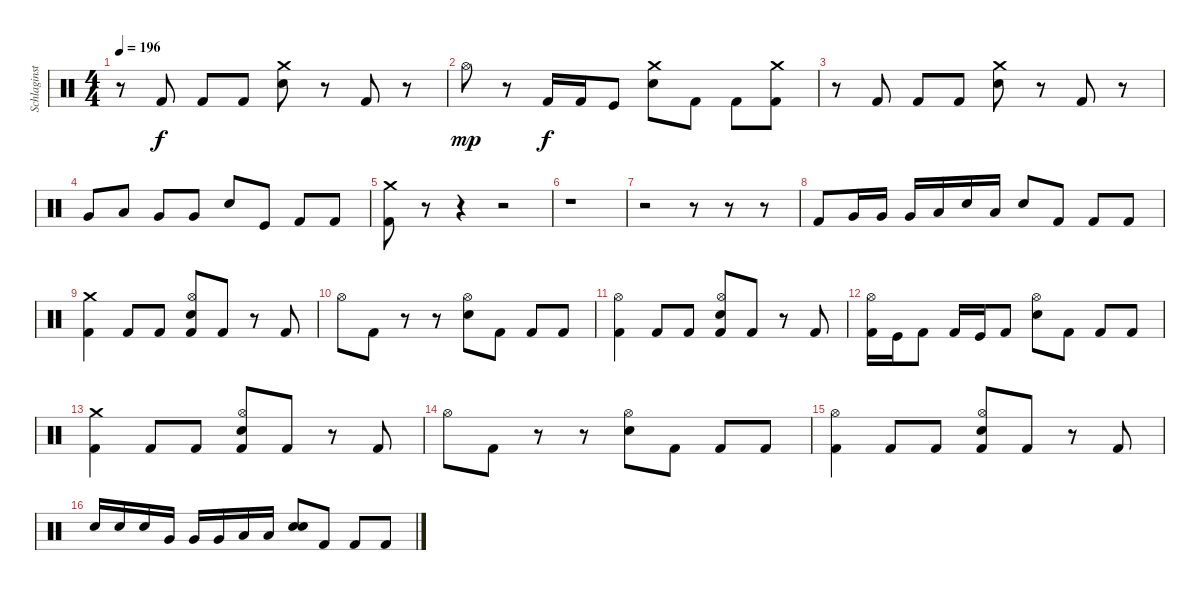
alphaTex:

\track ("Schlaginstrumente - Auswahl" "Schlaginst") {instrument percussion}
\staff
\articulation defaults
\ts (4 4)
\tempo 196
\clef neutral
\ks c
r.8{dy f} "Kick (hit) 2".8 "Kick (hit) 2".8 "Kick (hit) 2".8 ("Crash medium (hit)" "Snare (hit) 2").8 r.8 "Kick (hit) 2".8 r.8 |
"Hi-Hat (open)".8{dy mp} r.8 "Kick (hit) 2".16{dy f} "Kick (hit) 2".16 "Kick (hit)".8 ("Crash medium (hit)" "Electric Snare (hit)").8 "Kick (hit) 2".8 "Kick (hit) 2".8 ("Crash medium (hit)" "Kick (hit) 2").8 |
r.8 "Kick (hit) 2".8 "Kick (hit) 2".8 "Kick (hit) 2".8 ("Crash medium (hit)" "Snare (hit) 2").8 r.8 "Kick (hit) 2".8 r.8 |
"Very Low Tom (hit)".8 "Low Floor Tom (hit)".8 "Very Low Tom (hit)".8 "Very Low Tom (hit)".8 "Electric Snare (hit)".8 "Kick (hit)".8 "Kick (hit) 2".8 "Kick (hit) 2".8 |
("Crash medium (hit)" "Kick (hit) 2").8 r.8 r.4 r.2 |
r.1 |
r.2 r.8 r.8 r.8 |
"Kick (hit) 2".8 "Very Low Tom (hit)".16 "Very Low Tom (hit)".16 "Very Low Tom (hit)".16 "Low Floor Tom (hit)".16 "Snare (hit)".16 "Low Floor Tom (hit)".16 "Electric Snare (hit)".8 "Kick (hit) 2".8 "Kick (hit) 2".8 "Kick (hit) 2".8 |
("Crash medium (hit)" "Kick (hit) 2").4 "Kick (hit) 2".8 "Kick (hit) 2".8 ("Hi-Hat (open)" "Electric Snare (hit)" "Kick (hit) 2").8 "Kick (hit) 2".8 r.8 "Kick (hit) 2".8 |
"Hi-Hat (open)".8 "Kick (hit) 2".8 r.8 r.8 ("Hi-Hat (open)" "Electric Snare (hit)").8 "Kick (hit) 2".8 "Kick (hit) 2".8 "Kick (hit) 2".8 |
("Hi-Hat (open)" "Kick (hit) 2").4 "Kick (hit) 2".8 "Kick (hit) 2".8 ("Hi-Hat (open)" "Electric Snare (hit)" "Kick (hit) 2").8 "Kick (hit) 2".8 r.8 "Kick (hit) 2".8 |
("Hi-Hat (open)" "Kick (hit) 2").16 "Kick (hit)".16 "Kick (hit) 2".8 "Kick (hit) 2".16 "Kick (hit)".16 "Kick (hit) 2".8 ("Hi-Hat (open)" "Electric Snare (hit)").8 "Kick (hit) 2".8 "Kick (hit) 2".8 "Kick (hit) 2".8 |
("Crash medium (hit)" "Kick (hit) 2").4 "Kick (hit) 2".8 "Kick (hit) 2".8 ("Hi-Hat (open)" "Electric Snare (hit)" "Kick (hit) 2").8 "Kick (hit) 2".8 r.8 "Kick (hit) 2".8 |
"Hi-Hat (open)".8 "Kick (hit) 2".8 r.8 r.8 ("Hi-Hat (open)" "Electric Snare (hit)").8 "Kick (hit) 2".8 "Kick (hit) 2".8 "Kick (hit) 2".8 |
("Hi-Hat (open)" "Kick (hit) 2").4 "Kick (hit) 2".8 "Kick (hit) 2".8 ("Hi-Hat (open)" "Electric Snare (hit)" "Kick (hit) 2").8 "Kick (hit) 2".8 r.8 "Kick (hit) 2".8 |
"Snare (hit) 2".16 "Snare (hit) 2".16 "Snare (hit) 2".16 "Very Low Tom (hit)".16 "Very Low Tom (hit)".16 "Very Low Tom (hit)".16 "Low Floor Tom (hit)".16 "Low Floor Tom (hit)".16 ("Electric Snare (hit)" "Electric Snare (hit)").8{bd 60} "Kick (hit) 2".8 "Kick (hit) 2".8 "Kick (hit) 2".8
